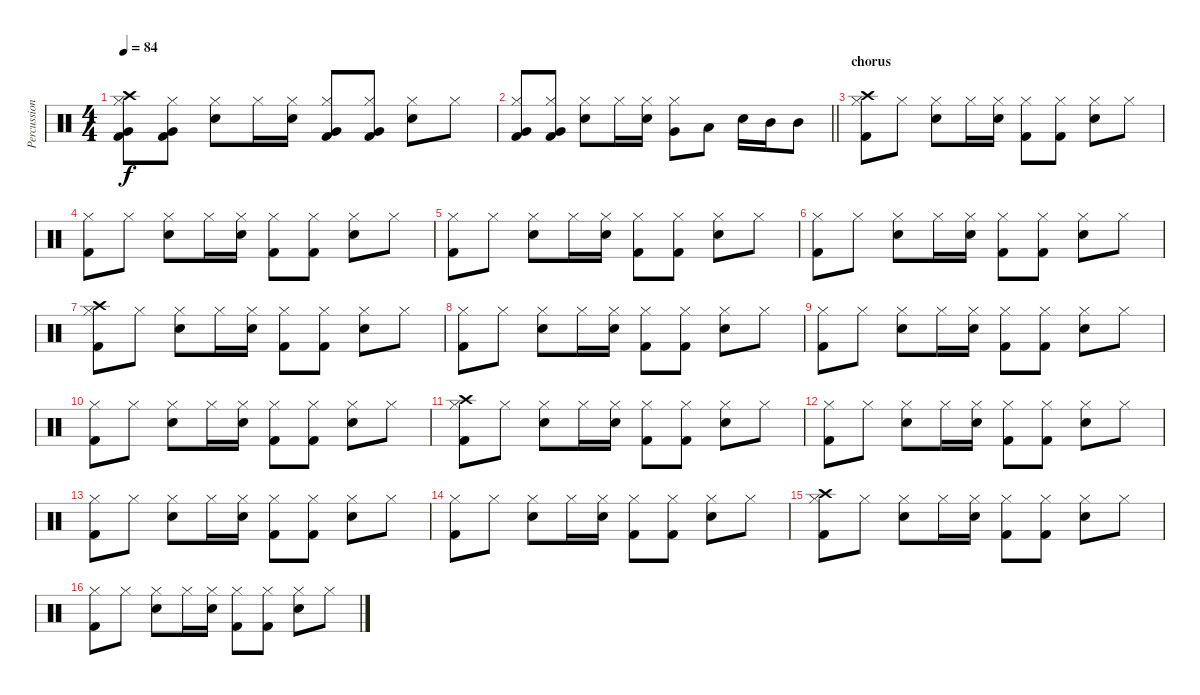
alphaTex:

\track ("Percussioni" "Percussion") {instrument percussion}
\staff {score}
\articulation defaults
\ts (4 4)
\tempo 84
\clef neutral
\ks c
("Very Low Tom (hit)" "Hi-Hat (closed)" "Kick (hit) 2" "Crash high (hit)").8{dy f} ("Very Low Tom (hit)" "Hi-Hat (closed)" "Kick (hit) 2").8 ("Electric Snare (hit)" "Hi-Hat (closed)").8 "Hi-Hat (closed)".16 ("Electric Snare (hit)" "Hi-Hat (closed)").16 ("Hi-Hat (closed)" "Very Low Tom (hit)" "Kick (hit) 2").8 ("Hi-Hat (closed)" "Very Low Tom (hit)" "Kick (hit) 2").8 ("Hi-Hat (closed)" "Electric Snare (hit)").8 "Hi-Hat (closed)".8 |
\barLineRight lightlight
("Very Low Tom (hit)" "Hi-Hat (closed)" "Kick (hit) 2").8 ("Very Low Tom (hit)" "Hi-Hat (closed)" "Kick (hit) 2").8 ("Electric Snare (hit)" "Hi-Hat (closed)").8 "Hi-Hat (closed)".16 ("Electric Snare (hit)" "Hi-Hat (closed)").16 ("Very Low Tom (hit)" "Hi-Hat (closed)").8 "Low Tom (hit)".8 "Electric Snare (hit)".16 "Mid Tom (hit)".16 "Mid Tom (hit)".8 |
\section ("" "chorus")
("Hi-Hat (closed)" "Kick (hit) 2" "Crash high (hit)").8 "Hi-Hat (closed)".8 ("Hi-Hat (closed)" "Electric Snare (hit)").8 "Hi-Hat (closed)".16 ("Hi-Hat (closed)" "Electric Snare (hit)").16 ("Hi-Hat (closed)" "Kick (hit) 2").8 ("Hi-Hat (closed)" "Kick (hit) 2").8 ("Hi-Hat (closed)" "Electric Snare (hit)").8 "Hi-Hat (closed)".8 |
("Hi-Hat (closed)" "Kick (hit) 2").8 "Hi-Hat (closed)".8 ("Hi-Hat (closed)" "Electric Snare (hit)").8 "Hi-Hat (closed)".16 ("Hi-Hat (closed)" "Electric Snare (hit)").16 ("Hi-Hat (closed)" "Kick (hit) 2").8 ("Hi-Hat (closed)" "Kick (hit) 2").8 ("Hi-Hat (closed)" "Electric Snare (hit)").8 "Hi-Hat (closed)".8 |
("Hi-Hat (closed)" "Kick (hit) 2").8 "Hi-Hat (closed)".8 ("Hi-Hat (closed)" "Electric Snare (hit)").8 "Hi-Hat (closed)".16 ("Hi-Hat (closed)" "Electric Snare (hit)").16 ("Hi-Hat (closed)" "Kick (hit) 2").8 ("Hi-Hat (closed)" "Kick (hit) 2").8 ("Hi-Hat (closed)" "Electric Snare (hit)").8 "Hi-Hat (closed)".8 |
("Hi-Hat (closed)" "Kick (hit) 2").8 "Hi-Hat (closed)".8 ("Hi-Hat (closed)" "Electric Snare (hit)").8 "Hi-Hat (closed)".16 ("Hi-Hat (closed)" "Electric Snare (hit)").16 ("Hi-Hat (closed)" "Kick (hit) 2").8 ("Hi-Hat (closed)" "Kick (hit) 2").8 ("Hi-Hat (closed)" "Electric Snare (hit)").8 "Hi-Hat (closed)".8 |
("Hi-Hat (closed)" "Kick (hit) 2" "Crash high (hit)").8 "Hi-Hat (closed)".8 ("Hi-Hat (closed)" "Electric Snare (hit)").8 "Hi-Hat (closed)".16 ("Hi-Hat (closed)" "Electric Snare (hit)").16 ("Hi-Hat (closed)" "Kick (hit) 2").8 ("Hi-Hat (closed)" "Kick (hit) 2").8 ("Hi-Hat (closed)" "Electric Snare (hit)").8 "Hi-Hat (closed)".8 |
("Hi-Hat (closed)" "Kick (hit) 2").8 "Hi-Hat (closed)".8 ("Hi-Hat (closed)" "Electric Snare (hit)").8 "Hi-Hat (closed)".16 ("Hi-Hat (closed)" "Electric Snare (hit)").16 ("Hi-Hat (closed)" "Kick (hit) 2").8 ("Hi-Hat (closed)" "Kick (hit) 2").8 ("Hi-Hat (closed)" "Electric Snare (hit)").8 "Hi-Hat (closed)".8 |
("Hi-Hat (closed)" "Kick (hit) 2").8 "Hi-Hat (closed)".8 ("Hi-Hat (closed)" "Electric Snare (hit)").8 "Hi-Hat (closed)".16 ("Hi-Hat (closed)" "Electric Snare (hit)").16 ("Hi-Hat (closed)" "Kick (hit) 2").8 ("Hi-Hat (closed)" "Kick (hit) 2").8 ("Hi-Hat (closed)" "Electric Snare (hit)").8 "Hi-Hat (closed)".8 |
("Hi-Hat (closed)" "Kick (hit) 2").8 "Hi-Hat (closed)".8 ("Hi-Hat (closed)" "Electric Snare (hit)").8 "Hi-Hat (closed)".16 ("Hi-Hat (closed)" "Electric Snare (hit)").16 ("Hi-Hat (closed)" "Kick (hit) 2").8 ("Hi-Hat (closed)" "Kick (hit) 2").8 ("Hi-Hat (closed)" "Electric Snare (hit)").8 "Hi-Hat (closed)".8 |
("Hi-Hat (closed)" "Kick (hit) 2" "Crash high (hit)").8 "Hi-Hat (closed)".8 ("Hi-Hat (closed)" "Electric Snare (hit)").8 "Hi-Hat (closed)".16 ("Hi-Hat (closed)" "Electric Snare (hit)").16 ("Hi-Hat (closed)" "Kick (hit) 2").8 ("Hi-Hat (closed)" "Kick (hit) 2").8 ("Hi-Hat (closed)" "Electric Snare (hit)").8 "Hi-Hat (closed)".8 |
("Hi-Hat (closed)" "Kick (hit) 2").8 "Hi-Hat (closed)".8 ("Hi-Hat (closed)" "Electric Snare (hit)").8 "Hi-Hat (closed)".16 ("Hi-Hat (closed)" "Electric Snare (hit)").16 ("Hi-Hat (closed)" "Kick (hit) 2").8 ("Hi-Hat (closed)" "Kick (hit) 2").8 ("Hi-Hat (closed)" "Electric Snare (hit)").8 "Hi-Hat (closed)".8 |
("Hi-Hat (closed)" "Kick (hit) 2").8 "Hi-Hat (closed)".8 ("Hi-Hat (closed)" "Electric Snare (hit)").8 "Hi-Hat (closed)".16 ("Hi-Hat (closed)" "Electric Snare (hit)").16 ("Hi-Hat (closed)" "Kick (hit) 2").8 ("Hi-Hat (closed)" "Kick (hit) 2").8 ("Hi-Hat (closed)" "Electric Snare (hit)").8 "Hi-Hat (closed)".8 |
("Hi-Hat (closed)" "Kick (hit) 2").8 "Hi-Hat (closed)".8 ("Hi-Hat (closed)" "Electric Snare (hit)").8 "Hi-Hat (closed)".16 ("Hi-Hat (closed)" "Electric Snare (hit)").16 ("Hi-Hat (closed)" "Kick (hit) 2").8 ("Hi-Hat (closed)" "Kick (hit) 2").8 ("Hi-Hat (closed)" "Electric Snare (hit)").8 "Hi-Hat (closed)".8 |
("Hi-Hat (closed)" "Kick (hit) 2" "Crash high (hit)").8 "Hi-Hat (closed)".8 ("Hi-Hat (closed)" "Electric Snare (hit)").8 "Hi-Hat (closed)".16 ("Hi-Hat (closed)" "Electric Snare (hit)").16 ("Hi-Hat (closed)" "Kick (hit) 2").8 ("Hi-Hat (closed)" "Kick (hit) 2").8 ("Hi-Hat (closed)" "Electric Snare (hit)").8 "Hi-Hat (closed)".8 |
("Hi-Hat (closed)" "Kick (hit) 2").8 "Hi-Hat (closed)".8 ("Hi-Hat (closed)" "Electric Snare (hit)").8 "Hi-Hat (closed)".16 ("Hi-Hat (closed)" "Electric Snare (hit)").16 ("Hi-Hat (closed)" "Kick (hit) 2").8 ("Hi-Hat (closed)" "Kick (hit) 2").8 ("Hi-Hat (closed)" "Electric Snare (hit)").8 "Hi-Hat (closed)".8
